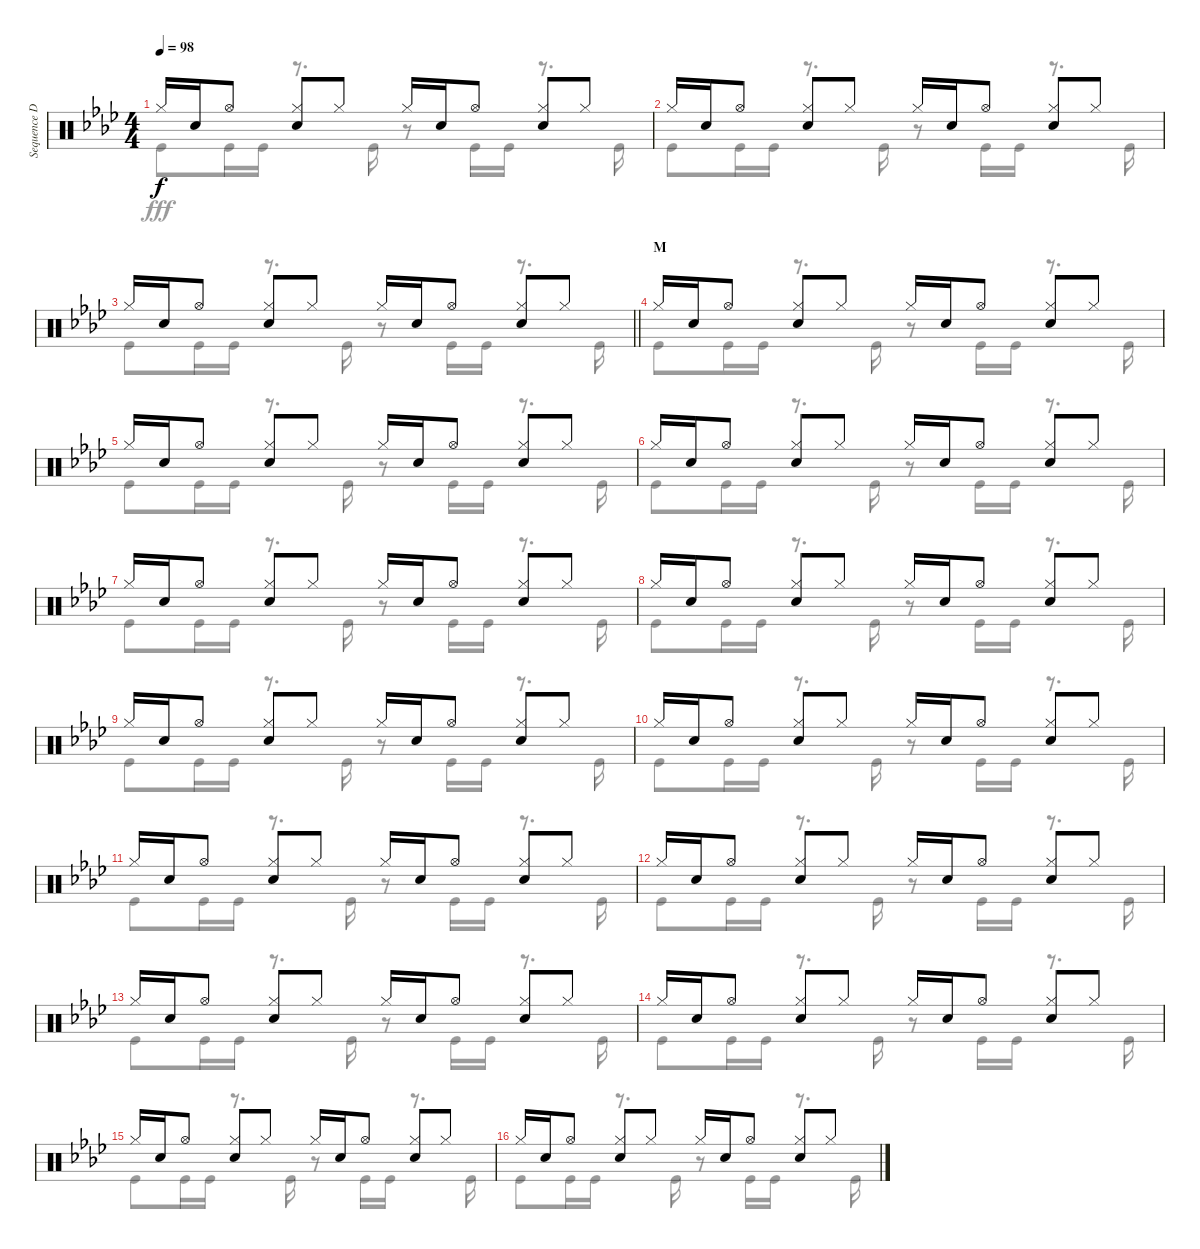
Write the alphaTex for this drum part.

\track ("Sequence Drums II" "Sequence D") {instrument percussion}
\staff {score}
\articulation defaults
\voice
\ts (4 4)
\tempo 98
\clef neutral
\ks ab "Hi-Hat (closed)".16{dy f} "Snare (hit) 2".16 "Hi-Hat (open)".8
("Hi-Hat (closed)" "Snare (hit) 2").8 "Hi-Hat (closed)".8 "Hi-Hat (closed)".16 "Snare (hit) 2".16 "Hi-Hat (open)".8 ("Hi-Hat (closed)" "Snare (hit) 2").8 "Hi-Hat (closed)".8 |
"Hi-Hat (closed)".16 "Snare (hit) 2".16 "Hi-Hat (open)".8 ("Hi-Hat (closed)" "Snare (hit) 2").8 "Hi-Hat (closed)".8 "Hi-Hat (closed)".16 "Snare (hit) 2".16 "Hi-Hat (open)".8 ("Hi-Hat (closed)" "Snare (hit) 2").8 "Hi-Hat (closed)".8 |
\barLineRight lightlight "Hi-Hat (closed)".16 "Snare (hit) 2".16 "Hi-Hat (open)".8
("Hi-Hat (closed)" "Snare (hit) 2").8 "Hi-Hat (closed)".8 "Hi-Hat (closed)".16 "Snare (hit) 2".16 "Hi-Hat (open)".8 ("Hi-Hat (closed)" "Snare (hit) 2").8 "Hi-Hat (closed)".8 |
\section ("" "M")
"Hi-Hat (closed)".16 "Snare (hit) 2".16 "Hi-Hat (open)".8 ("Hi-Hat (closed)" "Snare (hit) 2").8 "Hi-Hat (closed)".8 "Hi-Hat (closed)".16 "Snare (hit) 2".16 "Hi-Hat (open)".8 ("Hi-Hat (closed)" "Snare (hit) 2").8 "Hi-Hat (closed)".8 |
"Hi-Hat (closed)".16 "Snare (hit) 2".16 "Hi-Hat (open)".8 ("Hi-Hat (closed)" "Snare (hit) 2").8 "Hi-Hat (closed)".8 "Hi-Hat (closed)".16 "Snare (hit) 2".16 "Hi-Hat (open)".8 ("Hi-Hat (closed)" "Snare (hit) 2").8 "Hi-Hat (closed)".8 |
"Hi-Hat (closed)".16 "Snare (hit) 2".16 "Hi-Hat (open)".8 ("Hi-Hat (closed)" "Snare (hit) 2").8 "Hi-Hat (closed)".8 "Hi-Hat (closed)".16 "Snare (hit) 2".16 "Hi-Hat (open)".8 ("Hi-Hat (closed)" "Snare (hit) 2").8 "Hi-Hat (closed)".8 |
"Hi-Hat (closed)".16 "Snare (hit) 2".16 "Hi-Hat (open)".8 ("Hi-Hat (closed)" "Snare (hit) 2").8 "Hi-Hat (closed)".8 "Hi-Hat (closed)".16 "Snare (hit) 2".16 "Hi-Hat (open)".8 ("Hi-Hat (closed)" "Snare (hit) 2").8 "Hi-Hat (closed)".8 |
"Hi-Hat (closed)".16 "Snare (hit) 2".16 "Hi-Hat (open)".8 ("Hi-Hat (closed)" "Snare (hit) 2").8 "Hi-Hat (closed)".8 "Hi-Hat (closed)".16 "Snare (hit) 2".16 "Hi-Hat (open)".8 ("Hi-Hat (closed)" "Snare (hit) 2").8 "Hi-Hat (closed)".8 |
"Hi-Hat (closed)".16 "Snare (hit) 2".16 "Hi-Hat (open)".8 ("Hi-Hat (closed)" "Snare (hit) 2").8 "Hi-Hat (closed)".8 "Hi-Hat (closed)".16 "Snare (hit) 2".16 "Hi-Hat (open)".8 ("Hi-Hat (closed)" "Snare (hit) 2").8 "Hi-Hat (closed)".8 |
"Hi-Hat (closed)".16 "Snare (hit) 2".16 "Hi-Hat (open)".8 ("Hi-Hat (closed)" "Snare (hit) 2").8 "Hi-Hat (closed)".8 "Hi-Hat (closed)".16 "Snare (hit) 2".16 "Hi-Hat (open)".8 ("Hi-Hat (closed)" "Snare (hit) 2").8 "Hi-Hat (closed)".8 |
"Hi-Hat (closed)".16 "Snare (hit) 2".16 "Hi-Hat (open)".8 ("Hi-Hat (closed)" "Snare (hit) 2").8 "Hi-Hat (closed)".8 "Hi-Hat (closed)".16 "Snare (hit) 2".16 "Hi-Hat (open)".8 ("Hi-Hat (closed)" "Snare (hit) 2").8 "Hi-Hat (closed)".8 |
"Hi-Hat (closed)".16 "Snare (hit) 2".16 "Hi-Hat (open)".8 ("Hi-Hat (closed)" "Snare (hit) 2").8 "Hi-Hat (closed)".8 "Hi-Hat (closed)".16 "Snare (hit) 2".16 "Hi-Hat (open)".8 ("Hi-Hat (closed)" "Snare (hit) 2").8 "Hi-Hat (closed)".8 |
"Hi-Hat (closed)".16 "Snare (hit) 2".16 "Hi-Hat (open)".8 ("Hi-Hat (closed)" "Snare (hit) 2").8 "Hi-Hat (closed)".8 "Hi-Hat (closed)".16 "Snare (hit) 2".16 "Hi-Hat (open)".8 ("Hi-Hat (closed)" "Snare (hit) 2").8 "Hi-Hat (closed)".8 |
"Hi-Hat (closed)".16 "Snare (hit) 2".16 "Hi-Hat (open)".8 ("Hi-Hat (closed)" "Snare (hit) 2").8 "Hi-Hat (closed)".8 "Hi-Hat (closed)".16 "Snare (hit) 2".16 "Hi-Hat (open)".8 ("Hi-Hat (closed)" "Snare (hit) 2").8 "Hi-Hat (closed)".8 |
"Hi-Hat (closed)".16 "Snare (hit) 2".16 "Hi-Hat (open)".8 ("Hi-Hat (closed)" "Snare (hit) 2").8 "Hi-Hat (closed)".8 "Hi-Hat (closed)".16 "Snare (hit) 2".16 "Hi-Hat (open)".8 ("Hi-Hat (closed)" "Snare (hit) 2").8 "Hi-Hat (closed)".8 |
"Hi-Hat (closed)".16 "Snare (hit) 2".16 "Hi-Hat (open)".8 ("Hi-Hat (closed)" "Snare (hit) 2").8 "Hi-Hat (closed)".8 "Hi-Hat (closed)".16 "Snare (hit) 2".16 "Hi-Hat (open)".8 ("Hi-Hat (closed)" "Snare (hit) 2").8 "Hi-Hat (closed)".8
\voice
\clef neutral
\ottava regular
\simile none
\ks ab "Kick (hit)".8{dy fff} "Kick (hit)".16 "Kick (hit)".16
r.8{d} "Kick (hit)".16 r.8 "Kick (hit)".16 "Kick (hit)".16 r.8{d} "Kick (hit)".16 |
"Kick (hit)".8 "Kick (hit)".16 "Kick (hit)".16 r.8{d} "Kick (hit)".16 r.8 "Kick (hit)".16 "Kick (hit)".16 r.8{d} "Kick (hit)".16 |
\barLineRight lightlight "Kick (hit)".8 "Kick (hit)".16 "Kick (hit)".16
r.8{d} "Kick (hit)".16 r.8 "Kick (hit)".16 "Kick (hit)".16 r.8{d} "Kick (hit)".16 |
"Kick (hit)".8 "Kick (hit)".16 "Kick (hit)".16 r.8{d} "Kick (hit)".16 r.8 "Kick (hit)".16 "Kick (hit)".16 r.8{d} "Kick (hit)".16 |
"Kick (hit)".8 "Kick (hit)".16 "Kick (hit)".16 r.8{d} "Kick (hit)".16 r.8 "Kick (hit)".16 "Kick (hit)".16 r.8{d} "Kick (hit)".16 |
"Kick (hit)".8 "Kick (hit)".16 "Kick (hit)".16 r.8{d} "Kick (hit)".16 r.8 "Kick (hit)".16 "Kick (hit)".16 r.8{d} "Kick (hit)".16 |
"Kick (hit)".8 "Kick (hit)".16 "Kick (hit)".16 r.8{d} "Kick (hit)".16 r.8 "Kick (hit)".16 "Kick (hit)".16 r.8{d} "Kick (hit)".16 |
"Kick (hit)".8 "Kick (hit)".16 "Kick (hit)".16 r.8{d} "Kick (hit)".16 r.8 "Kick (hit)".16 "Kick (hit)".16 r.8{d} "Kick (hit)".16 |
"Kick (hit)".8 "Kick (hit)".16 "Kick (hit)".16 r.8{d} "Kick (hit)".16 r.8 "Kick (hit)".16 "Kick (hit)".16 r.8{d} "Kick (hit)".16 |
"Kick (hit)".8 "Kick (hit)".16 "Kick (hit)".16 r.8{d} "Kick (hit)".16 r.8 "Kick (hit)".16 "Kick (hit)".16 r.8{d} "Kick (hit)".16 |
"Kick (hit)".8 "Kick (hit)".16 "Kick (hit)".16 r.8{d} "Kick (hit)".16 r.8 "Kick (hit)".16 "Kick (hit)".16 r.8{d} "Kick (hit)".16 |
"Kick (hit)".8 "Kick (hit)".16 "Kick (hit)".16 r.8{d} "Kick (hit)".16 r.8 "Kick (hit)".16 "Kick (hit)".16 r.8{d} "Kick (hit)".16 |
"Kick (hit)".8 "Kick (hit)".16 "Kick (hit)".16 r.8{d} "Kick (hit)".16 r.8 "Kick (hit)".16 "Kick (hit)".16 r.8{d} "Kick (hit)".16 |
"Kick (hit)".8 "Kick (hit)".16 "Kick (hit)".16 r.8{d} "Kick (hit)".16 r.8 "Kick (hit)".16 "Kick (hit)".16 r.8{d} "Kick (hit)".16 |
"Kick (hit)".8 "Kick (hit)".16 "Kick (hit)".16 r.8{d} "Kick (hit)".16 r.8 "Kick (hit)".16 "Kick (hit)".16 r.8{d} "Kick (hit)".16 |
"Kick (hit)".8 "Kick (hit)".16 "Kick (hit)".16 r.8{d} "Kick (hit)".16 r.8 "Kick (hit)".16 "Kick (hit)".16 r.8{d} "Kick (hit)".16
